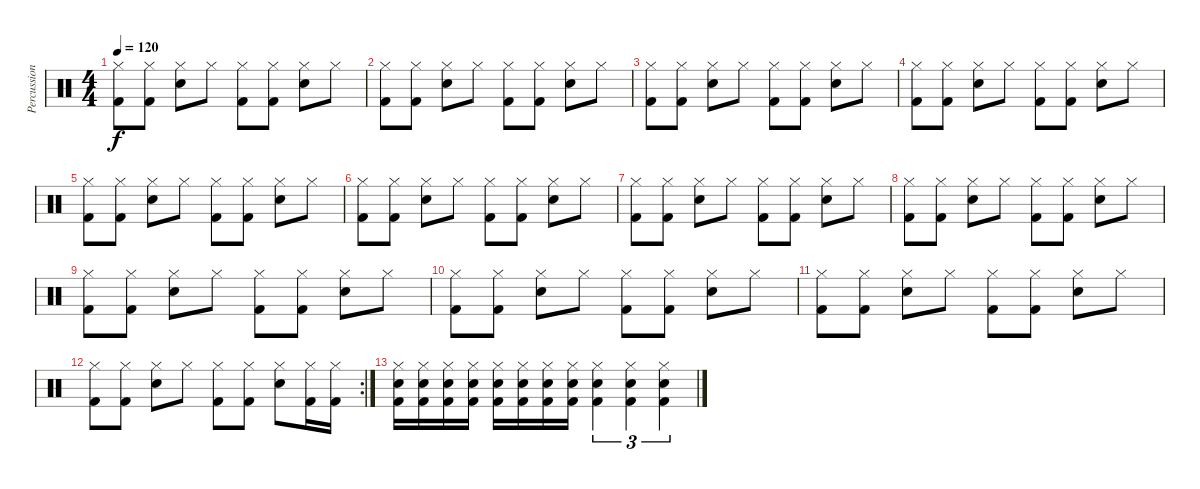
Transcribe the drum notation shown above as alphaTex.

\track ("Percussion" "Percussion") {instrument percussion}
\staff {score}
\articulation defaults
\ts (4 4)
\tempo 120
\clef neutral
\ks c
("Hi-Hat (closed)" "Kick (hit) 2").8{dy f} ("Hi-Hat (closed)" "Kick (hit) 2").8 ("Hi-Hat (closed)" "Snare (hit) 2").8 "Hi-Hat (closed)".8 ("Hi-Hat (closed)" "Kick (hit) 2").8 ("Hi-Hat (closed)" "Kick (hit) 2").8 ("Hi-Hat (closed)" "Snare (hit) 2").8 "Hi-Hat (closed)".8 |
("Hi-Hat (closed)" "Kick (hit) 2").8 ("Hi-Hat (closed)" "Kick (hit) 2").8 ("Hi-Hat (closed)" "Snare (hit) 2").8 "Hi-Hat (closed)".8 ("Hi-Hat (closed)" "Kick (hit) 2").8 ("Hi-Hat (closed)" "Kick (hit) 2").8 ("Hi-Hat (closed)" "Snare (hit) 2").8 "Hi-Hat (closed)".8 |
("Hi-Hat (closed)" "Kick (hit) 2").8 ("Hi-Hat (closed)" "Kick (hit) 2").8 ("Hi-Hat (closed)" "Snare (hit) 2").8 "Hi-Hat (closed)".8 ("Hi-Hat (closed)" "Kick (hit) 2").8 ("Hi-Hat (closed)" "Kick (hit) 2").8 ("Hi-Hat (closed)" "Snare (hit) 2").8 "Hi-Hat (closed)".8 |
("Hi-Hat (closed)" "Kick (hit) 2").8 ("Hi-Hat (closed)" "Kick (hit) 2").8 ("Hi-Hat (closed)" "Snare (hit) 2").8 "Hi-Hat (closed)".8 ("Hi-Hat (closed)" "Kick (hit) 2").8 ("Hi-Hat (closed)" "Kick (hit) 2").8 ("Hi-Hat (closed)" "Snare (hit) 2").8 "Hi-Hat (closed)".8 |
("Hi-Hat (closed)" "Kick (hit) 2").8 ("Hi-Hat (closed)" "Kick (hit) 2").8 ("Hi-Hat (closed)" "Snare (hit) 2").8 "Hi-Hat (closed)".8 ("Hi-Hat (closed)" "Kick (hit) 2").8 ("Hi-Hat (closed)" "Kick (hit) 2").8 ("Hi-Hat (closed)" "Snare (hit) 2").8 "Hi-Hat (closed)".8 |
("Hi-Hat (closed)" "Kick (hit) 2").8 ("Hi-Hat (closed)" "Kick (hit) 2").8 ("Hi-Hat (closed)" "Snare (hit) 2").8 "Hi-Hat (closed)".8 ("Hi-Hat (closed)" "Kick (hit) 2").8 ("Hi-Hat (closed)" "Kick (hit) 2").8 ("Hi-Hat (closed)" "Snare (hit) 2").8 "Hi-Hat (closed)".8 |
("Hi-Hat (closed)" "Kick (hit) 2").8 ("Hi-Hat (closed)" "Kick (hit) 2").8 ("Hi-Hat (closed)" "Snare (hit) 2").8 "Hi-Hat (closed)".8 ("Hi-Hat (closed)" "Kick (hit) 2").8 ("Hi-Hat (closed)" "Kick (hit) 2").8 ("Hi-Hat (closed)" "Snare (hit) 2").8 "Hi-Hat (closed)".8 |
("Hi-Hat (closed)" "Kick (hit) 2").8 ("Hi-Hat (closed)" "Kick (hit) 2").8 ("Hi-Hat (closed)" "Snare (hit) 2").8 "Hi-Hat (closed)".8 ("Hi-Hat (closed)" "Kick (hit) 2").8 ("Hi-Hat (closed)" "Kick (hit) 2").8 ("Hi-Hat (closed)" "Snare (hit) 2").8 "Hi-Hat (closed)".8 |
("Hi-Hat (closed)" "Kick (hit) 2").8 ("Hi-Hat (closed)" "Kick (hit) 2").8 ("Hi-Hat (closed)" "Snare (hit) 2").8 "Hi-Hat (closed)".8 ("Hi-Hat (closed)" "Kick (hit) 2").8 ("Hi-Hat (closed)" "Kick (hit) 2").8 ("Hi-Hat (closed)" "Snare (hit) 2").8 "Hi-Hat (closed)".8 |
("Hi-Hat (closed)" "Kick (hit) 2").8 ("Hi-Hat (closed)" "Kick (hit) 2").8 ("Hi-Hat (closed)" "Snare (hit) 2").8 "Hi-Hat (closed)".8 ("Hi-Hat (closed)" "Kick (hit) 2").8 ("Hi-Hat (closed)" "Kick (hit) 2").8 ("Hi-Hat (closed)" "Snare (hit) 2").8 "Hi-Hat (closed)".8 |
("Hi-Hat (closed)" "Kick (hit) 2").8 ("Hi-Hat (closed)" "Kick (hit) 2").8 ("Hi-Hat (closed)" "Snare (hit) 2").8 "Hi-Hat (closed)".8 ("Hi-Hat (closed)" "Kick (hit) 2").8 ("Hi-Hat (closed)" "Kick (hit) 2").8 ("Hi-Hat (closed)" "Snare (hit) 2").8 "Hi-Hat (closed)".8 |
\rc 2
("Hi-Hat (closed)" "Kick (hit) 2").8 ("Hi-Hat (closed)" "Kick (hit) 2").8 ("Hi-Hat (closed)" "Snare (hit) 2").8 "Hi-Hat (closed)".8 ("Hi-Hat (closed)" "Kick (hit) 2").8 ("Hi-Hat (closed)" "Kick (hit) 2").8 ("Hi-Hat (closed)" "Snare (hit) 2").8 ("Hi-Hat (closed)" "Kick (hit) 2").16 ("Hi-Hat (closed)" "Kick (hit) 2").16 |
("Hi-Hat (closed)" "Snare (hit) 2" "Kick (hit) 2").16 ("Hi-Hat (closed)" "Snare (hit) 2" "Kick (hit) 2").16 ("Hi-Hat (closed)" "Snare (hit) 2" "Kick (hit) 2").16 ("Hi-Hat (closed)" "Snare (hit) 2" "Kick (hit) 2").16 ("Hi-Hat (closed)" "Snare (hit) 2" "Kick (hit) 2").16 ("Hi-Hat (closed)" "Snare (hit) 2" "Kick (hit) 2").16 ("Hi-Hat (closed)" "Snare (hit) 2" "Kick (hit) 2").16 ("Hi-Hat (closed)" "Snare (hit) 2" "Kick (hit) 2").16 ("Hi-Hat (closed)" "Snare (hit) 2" "Kick (hit) 2").4{tu (3 2)} ("Hi-Hat (closed)" "Snare (hit) 2" "Kick (hit) 2").4{tu (3 2)} ("Hi-Hat (closed)" "Snare (hit) 2" "Kick (hit) 2").4{tu (3 2)}
